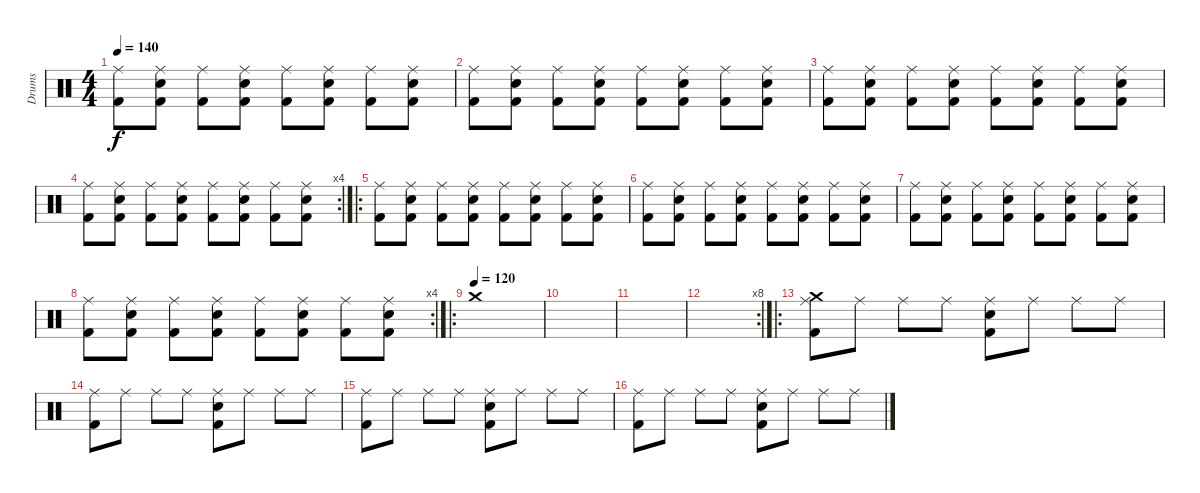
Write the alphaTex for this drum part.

\track ("Drums" "Drums") {instrument percussion}
\staff {score}
\articulation defaults
\ts (4 4)
\tempo 140
\clef neutral
\ks c
("Ride (middle)" "Kick (hit) 2").8{dy f} ("Ride (middle)" "Electric Snare (hit)" "Kick (hit) 2").8 ("Ride (middle)" "Kick (hit) 2").8 ("Ride (middle)" "Electric Snare (hit)" "Kick (hit) 2").8 ("Ride (middle)" "Kick (hit) 2").8 ("Ride (middle)" "Electric Snare (hit)" "Kick (hit) 2").8 ("Ride (middle)" "Kick (hit) 2").8 ("Ride (middle)" "Electric Snare (hit)" "Kick (hit) 2").8 |
("Ride (middle)" "Kick (hit) 2").8 ("Ride (middle)" "Electric Snare (hit)" "Kick (hit) 2").8 ("Ride (middle)" "Kick (hit) 2").8 ("Ride (middle)" "Electric Snare (hit)" "Kick (hit) 2").8 ("Ride (middle)" "Kick (hit) 2").8 ("Ride (middle)" "Electric Snare (hit)" "Kick (hit) 2").8 ("Ride (middle)" "Kick (hit) 2").8 ("Ride (middle)" "Electric Snare (hit)" "Kick (hit) 2").8 |
("Ride (middle)" "Kick (hit) 2").8 ("Ride (middle)" "Electric Snare (hit)" "Kick (hit) 2").8 ("Ride (middle)" "Kick (hit) 2").8 ("Ride (middle)" "Electric Snare (hit)" "Kick (hit) 2").8 ("Ride (middle)" "Kick (hit) 2").8 ("Ride (middle)" "Electric Snare (hit)" "Kick (hit) 2").8 ("Ride (middle)" "Kick (hit) 2").8 ("Ride (middle)" "Electric Snare (hit)" "Kick (hit) 2").8 |
\rc 4
("Ride (middle)" "Kick (hit) 2").8 ("Ride (middle)" "Electric Snare (hit)" "Kick (hit) 2").8 ("Ride (middle)" "Kick (hit) 2").8 ("Ride (middle)" "Electric Snare (hit)" "Kick (hit) 2").8 ("Ride (middle)" "Kick (hit) 2").8 ("Ride (middle)" "Electric Snare (hit)" "Kick (hit) 2").8 ("Ride (middle)" "Kick (hit) 2").8 ("Ride (middle)" "Electric Snare (hit)" "Kick (hit) 2").8 |
\ro
("Ride (middle)" "Kick (hit) 2").8 ("Ride (middle)" "Electric Snare (hit)" "Kick (hit) 2").8 ("Ride (middle)" "Kick (hit) 2").8 ("Ride (middle)" "Electric Snare (hit)" "Kick (hit) 2").8 ("Ride (middle)" "Kick (hit) 2").8 ("Ride (middle)" "Electric Snare (hit)" "Kick (hit) 2").8 ("Ride (middle)" "Kick (hit) 2").8 ("Ride (middle)" "Electric Snare (hit)" "Kick (hit) 2").8 |
("Ride (middle)" "Kick (hit) 2").8 ("Ride (middle)" "Electric Snare (hit)" "Kick (hit) 2").8 ("Ride (middle)" "Kick (hit) 2").8 ("Ride (middle)" "Electric Snare (hit)" "Kick (hit) 2").8 ("Ride (middle)" "Kick (hit) 2").8 ("Ride (middle)" "Electric Snare (hit)" "Kick (hit) 2").8 ("Ride (middle)" "Kick (hit) 2").8 ("Ride (middle)" "Electric Snare (hit)" "Kick (hit) 2").8 |
("Ride (middle)" "Kick (hit) 2").8 ("Ride (middle)" "Electric Snare (hit)" "Kick (hit) 2").8 ("Ride (middle)" "Kick (hit) 2").8 ("Ride (middle)" "Electric Snare (hit)" "Kick (hit) 2").8 ("Ride (middle)" "Kick (hit) 2").8 ("Ride (middle)" "Electric Snare (hit)" "Kick (hit) 2").8 ("Ride (middle)" "Kick (hit) 2").8 ("Ride (middle)" "Electric Snare (hit)" "Kick (hit) 2").8 |
\rc 4
("Ride (middle)" "Kick (hit) 2").8 ("Ride (middle)" "Electric Snare (hit)" "Kick (hit) 2").8 ("Ride (middle)" "Kick (hit) 2").8 ("Ride (middle)" "Electric Snare (hit)" "Kick (hit) 2").8 ("Ride (middle)" "Kick (hit) 2").8 ("Ride (middle)" "Electric Snare (hit)" "Kick (hit) 2").8 ("Ride (middle)" "Kick (hit) 2").8 ("Ride (middle)" "Electric Snare (hit)" "Kick (hit) 2").8 |
\ro
\tempo (120)
"Crash medium (hit)".1 |
|
|
\rc 8
|
\ro
("Crash medium (hit)" "Ride (middle)" "Kick (hit) 2").8 "Ride (middle)".8 "Ride (middle)".8 "Ride (middle)".8 ("Ride (middle)" "Electric Snare (hit)" "Kick (hit) 2").8 "Ride (middle)".8 "Ride (middle)".8 "Ride (middle)".8 |
("Ride (middle)" "Kick (hit) 2").8 "Ride (middle)".8 "Ride (middle)".8 "Ride (middle)".8 ("Ride (middle)" "Electric Snare (hit)" "Kick (hit) 2").8 "Ride (middle)".8 "Ride (middle)".8 "Ride (middle)".8 |
("Ride (middle)" "Kick (hit) 2").8 "Ride (middle)".8 "Ride (middle)".8 "Ride (middle)".8 ("Ride (middle)" "Electric Snare (hit)" "Kick (hit) 2").8 "Ride (middle)".8 "Ride (middle)".8 "Ride (middle)".8 |
("Ride (middle)" "Kick (hit) 2").8 "Ride (middle)".8 "Ride (middle)".8 "Ride (middle)".8 ("Ride (middle)" "Electric Snare (hit)" "Kick (hit) 2").8 "Ride (middle)".8 "Ride (middle)".8 "Ride (middle)".8
